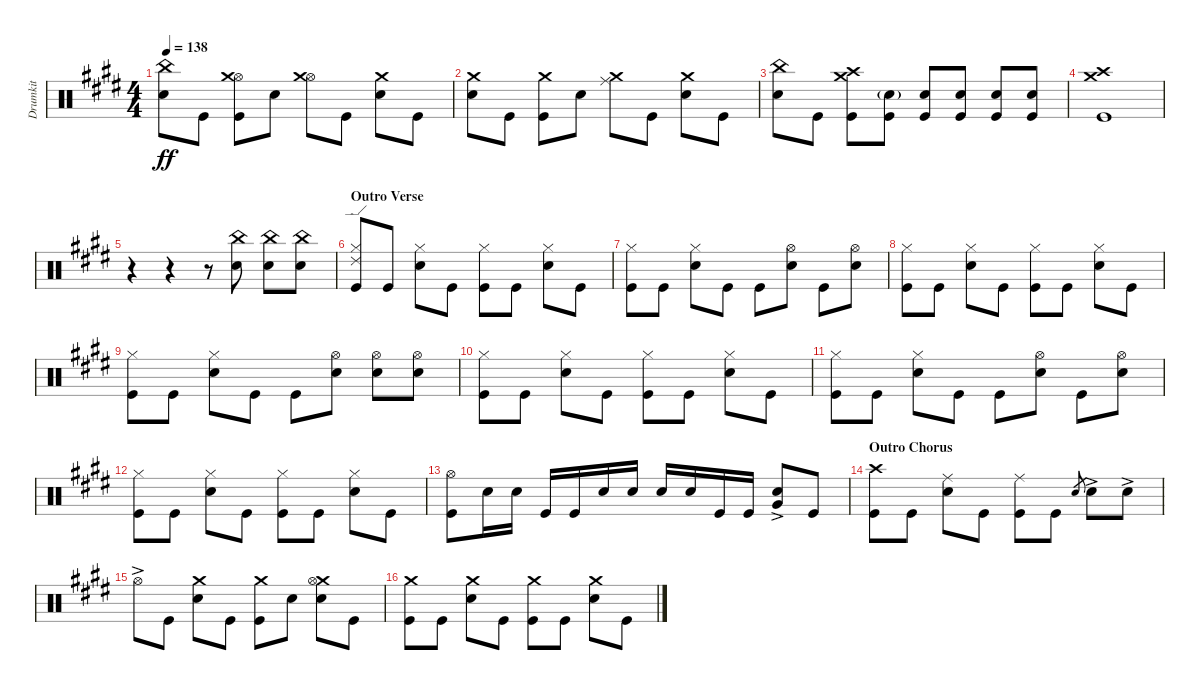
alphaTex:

\track ("Drumkit" "Drumkit") {instrument percussion}
\staff {score}
\articulation defaults
\ts (4 4)
\tempo 138
\clef neutral
\ks c#minor
("Snare (hit) 2" "China (hit)").8{dy ff} "Kick (hit)".8 ("Kick (hit)" "Hi-Hat (open)" "Crash medium (hit)").8 "Snare (hit) 2".8 ("Hi-Hat (open)" "Crash medium (hit)").8 "Kick (hit)".8 ("Snare (hit) 2" "Crash medium (hit)").8 "Kick (hit)".8 |
("Snare (hit) 2" "Crash medium (hit)").8 "Kick (hit)".8 ("Kick (hit)" "Crash medium (hit)").8 "Snare (hit) 2".8 ("Crash medium (hit)" "Ride (middle)").8 "Kick (hit)".8 ("Snare (hit) 2" "Crash medium (hit)").8 "Kick (hit)".8 |
("Snare (hit) 2" "China (hit)").8 "Kick (hit)".8 ("Kick (hit)" "Crash medium (hit)" "Crash high (hit)").8 ("Snare (hit) 2"{g} "Kick (hit)").8 ("Kick (hit)" "Snare (hit) 2").8 ("Kick (hit)" "Snare (hit) 2").8 ("Snare (hit) 2" "Kick (hit)").8 ("Kick (hit)" "Snare (hit) 2").8 |
("Kick (hit)" "Crash medium (hit)" "Crash high (hit)").1 |
r.4 r.4 r.8 ("Snare (hit) 2" "China (hit)").8 ("Snare (hit) 2" "China (hit)").8 ("Snare (hit) 2" "China (hit)").8 |
\section ("" "Outro Verse")
("Kick (hit)" "Hi-Hat (closed)" "Ride (edge) 2").8 "Kick (hit)".8 ("Snare (hit) 2" "Hi-Hat (closed)").8 "Kick (hit)".8 ("Kick (hit)" "Hi-Hat (closed)").8 "Kick (hit)".8 ("Snare (hit) 2" "Hi-Hat (closed)").8 "Kick (hit)".8 |
("Kick (hit)" "Hi-Hat (closed)").8 "Kick (hit)".8 ("Snare (hit) 2" "Hi-Hat (closed)").8 "Kick (hit)".8 "Kick (hit)".8 ("Snare (hit) 2" "Hi-Hat (open)").8 "Kick (hit)".8 ("Snare (hit) 2" "Hi-Hat (open)").8 |
("Kick (hit)" "Hi-Hat (closed)").8 "Kick (hit)".8 ("Snare (hit) 2" "Hi-Hat (closed)").8 "Kick (hit)".8 ("Kick (hit)" "Hi-Hat (closed)").8 "Kick (hit)".8 ("Snare (hit) 2" "Hi-Hat (closed)").8 "Kick (hit)".8 |
("Kick (hit)" "Hi-Hat (closed)").8 "Kick (hit)".8 ("Snare (hit) 2" "Hi-Hat (closed)").8 "Kick (hit)".8 "Kick (hit)".8 ("Snare (hit) 2" "Hi-Hat (open)").8 ("Snare (hit) 2" "Hi-Hat (open)").8 ("Snare (hit) 2" "Hi-Hat (open)").8 |
("Kick (hit)" "Hi-Hat (closed)").8 "Kick (hit)".8 ("Snare (hit) 2" "Hi-Hat (closed)").8 "Kick (hit)".8 ("Kick (hit)" "Hi-Hat (closed)").8 "Kick (hit)".8 ("Snare (hit) 2" "Hi-Hat (closed)").8 "Kick (hit)".8 |
("Kick (hit)" "Hi-Hat (closed)").8 "Kick (hit)".8 ("Snare (hit) 2" "Hi-Hat (closed)").8 "Kick (hit)".8 "Kick (hit)".8 ("Snare (hit) 2" "Hi-Hat (open)").8 "Kick (hit)".8 ("Snare (hit) 2" "Hi-Hat (open)").8 |
("Kick (hit)" "Hi-Hat (closed)").8 "Kick (hit)".8 ("Snare (hit) 2" "Hi-Hat (closed)").8 "Kick (hit)".8 ("Kick (hit)" "Hi-Hat (closed)").8 "Kick (hit)".8 ("Snare (hit) 2" "Hi-Hat (closed)").8 "Kick (hit)".8 |
("Kick (hit)" "Hi-Hat (open)").8 "Snare (hit) 2".16 "Snare (hit) 2".16 "Kick (hit)".16 "Kick (hit)".16 "Snare (hit) 2".16 "Snare (hit) 2".16 "Snare (hit) 2".16 "Snare (hit) 2".16 "Kick (hit)".16 "Kick (hit)".16 ("Snare (hit) 2"{ac} "Very Low Tom (hit)"{ac}).8 "Kick (hit)".8 |
\section ("" "Outro Chorus")
("Kick (hit)" "Crash high (hit)").8 "Kick (hit)".8 ("Snare (hit) 2" "Ride (middle)").8 "Kick (hit)".8 ("Kick (hit)" "Ride (middle)").8 "Kick (hit)".8 "Snare (hit)".8{gr} "Snare (hit) 2"{ac}.8 "Snare (hit) 2"{ac}.8 |
"Hi-Hat (open)"{ac}.8 "Kick (hit)".8 ("Snare (hit) 2" "Crash medium (hit)").8 "Kick (hit)".8 ("Kick (hit)" "Crash medium (hit)").8 "Snare (hit) 2".8 ("Snare (hit) 2" "Crash medium (hit)" "Hi-Hat (open)").8 "Kick (hit)".8 |
("Kick (hit)" "Crash medium (hit)").8 "Kick (hit)".8 ("Snare (hit) 2" "Crash medium (hit)").8 "Kick (hit)".8 ("Kick (hit)" "Crash medium (hit)").8 "Kick (hit)".8 ("Snare (hit) 2" "Crash medium (hit)").8 "Kick (hit)".8
